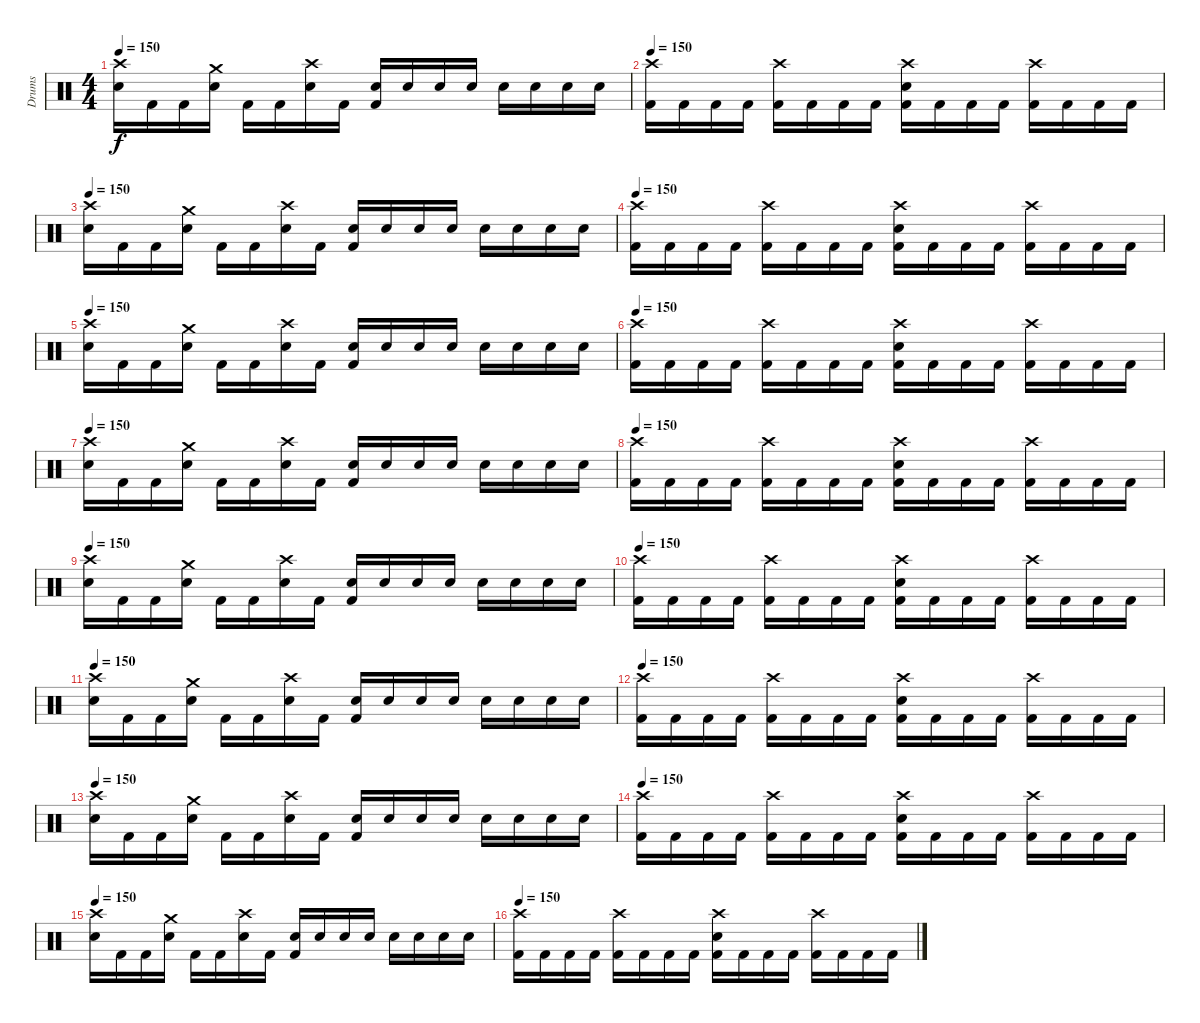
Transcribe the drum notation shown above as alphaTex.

\track ("Drums" "Drums") {instrument percussion}
\staff {score}
\articulation defaults
\ts (4 4)
\tempo 150
\clef neutral
\ks c
("Crash high (hit)" "Electric Snare (hit)").16{dy f} "Kick (hit) 2".16 "Kick (hit) 2".16 ("Crash medium (hit)" "Electric Snare (hit)").16 "Kick (hit) 2".16 "Kick (hit) 2".16 ("Crash high (hit)" "Electric Snare (hit)").16 "Kick (hit) 2".16 ("Electric Snare (hit)" "Kick (hit) 2").16 "Electric Snare (hit)".16 "Electric Snare (hit)".16 "Electric Snare (hit)".16 "Electric Snare (hit)".16 "Electric Snare (hit)".16 "Electric Snare (hit)".16 "Electric Snare (hit)".16 |
\tempo 150
("Crash high (hit)" "Kick (hit) 2").16 "Kick (hit) 2".16 "Kick (hit) 2".16 "Kick (hit) 2".16 ("Crash high (hit)" "Kick (hit) 2").16 "Kick (hit) 2".16 "Kick (hit) 2".16 "Kick (hit) 2".16 ("Crash high (hit)" "Electric Snare (hit)" "Kick (hit) 2").16 "Kick (hit) 2".16 "Kick (hit) 2".16 "Kick (hit) 2".16 ("Crash high (hit)" "Kick (hit) 2").16 "Kick (hit) 2".16 "Kick (hit) 2".16 "Kick (hit) 2".16 |
\tempo 150
("Crash high (hit)" "Electric Snare (hit)").16 "Kick (hit) 2".16 "Kick (hit) 2".16 ("Crash medium (hit)" "Electric Snare (hit)").16 "Kick (hit) 2".16 "Kick (hit) 2".16 ("Crash high (hit)" "Electric Snare (hit)").16 "Kick (hit) 2".16 ("Electric Snare (hit)" "Kick (hit) 2").16 "Electric Snare (hit)".16 "Electric Snare (hit)".16 "Electric Snare (hit)".16 "Electric Snare (hit)".16 "Electric Snare (hit)".16 "Electric Snare (hit)".16 "Electric Snare (hit)".16 |
\tempo 150
("Crash high (hit)" "Kick (hit) 2").16 "Kick (hit) 2".16 "Kick (hit) 2".16 "Kick (hit) 2".16 ("Crash high (hit)" "Kick (hit) 2").16 "Kick (hit) 2".16 "Kick (hit) 2".16 "Kick (hit) 2".16 ("Crash high (hit)" "Electric Snare (hit)" "Kick (hit) 2").16 "Kick (hit) 2".16 "Kick (hit) 2".16 "Kick (hit) 2".16 ("Crash high (hit)" "Kick (hit) 2").16 "Kick (hit) 2".16 "Kick (hit) 2".16 "Kick (hit) 2".16 |
\tempo 150
("Crash high (hit)" "Electric Snare (hit)").16 "Kick (hit) 2".16 "Kick (hit) 2".16 ("Crash medium (hit)" "Electric Snare (hit)").16 "Kick (hit) 2".16 "Kick (hit) 2".16 ("Crash high (hit)" "Electric Snare (hit)").16 "Kick (hit) 2".16 ("Electric Snare (hit)" "Kick (hit) 2").16 "Electric Snare (hit)".16 "Electric Snare (hit)".16 "Electric Snare (hit)".16 "Electric Snare (hit)".16 "Electric Snare (hit)".16 "Electric Snare (hit)".16 "Electric Snare (hit)".16 |
\tempo 150
("Crash high (hit)" "Kick (hit) 2").16 "Kick (hit) 2".16 "Kick (hit) 2".16 "Kick (hit) 2".16 ("Crash high (hit)" "Kick (hit) 2").16 "Kick (hit) 2".16 "Kick (hit) 2".16 "Kick (hit) 2".16 ("Crash high (hit)" "Electric Snare (hit)" "Kick (hit) 2").16 "Kick (hit) 2".16 "Kick (hit) 2".16 "Kick (hit) 2".16 ("Crash high (hit)" "Kick (hit) 2").16 "Kick (hit) 2".16 "Kick (hit) 2".16 "Kick (hit) 2".16 |
\tempo 150
("Crash high (hit)" "Electric Snare (hit)").16 "Kick (hit) 2".16 "Kick (hit) 2".16 ("Crash medium (hit)" "Electric Snare (hit)").16 "Kick (hit) 2".16 "Kick (hit) 2".16 ("Crash high (hit)" "Electric Snare (hit)").16 "Kick (hit) 2".16 ("Electric Snare (hit)" "Kick (hit) 2").16 "Electric Snare (hit)".16 "Electric Snare (hit)".16 "Electric Snare (hit)".16 "Electric Snare (hit)".16 "Electric Snare (hit)".16 "Electric Snare (hit)".16 "Electric Snare (hit)".16 |
\tempo 150
("Crash high (hit)" "Kick (hit) 2").16 "Kick (hit) 2".16 "Kick (hit) 2".16 "Kick (hit) 2".16 ("Crash high (hit)" "Kick (hit) 2").16 "Kick (hit) 2".16 "Kick (hit) 2".16 "Kick (hit) 2".16 ("Crash high (hit)" "Electric Snare (hit)" "Kick (hit) 2").16 "Kick (hit) 2".16 "Kick (hit) 2".16 "Kick (hit) 2".16 ("Crash high (hit)" "Kick (hit) 2").16 "Kick (hit) 2".16 "Kick (hit) 2".16 "Kick (hit) 2".16 |
\tempo 150
("Crash high (hit)" "Electric Snare (hit)").16 "Kick (hit) 2".16 "Kick (hit) 2".16 ("Crash medium (hit)" "Electric Snare (hit)").16 "Kick (hit) 2".16 "Kick (hit) 2".16 ("Crash high (hit)" "Electric Snare (hit)").16 "Kick (hit) 2".16 ("Electric Snare (hit)" "Kick (hit) 2").16 "Electric Snare (hit)".16 "Electric Snare (hit)".16 "Electric Snare (hit)".16 "Electric Snare (hit)".16 "Electric Snare (hit)".16 "Electric Snare (hit)".16 "Electric Snare (hit)".16 |
\tempo 150
("Crash high (hit)" "Kick (hit) 2").16 "Kick (hit) 2".16 "Kick (hit) 2".16 "Kick (hit) 2".16 ("Crash high (hit)" "Kick (hit) 2").16 "Kick (hit) 2".16 "Kick (hit) 2".16 "Kick (hit) 2".16 ("Crash high (hit)" "Electric Snare (hit)" "Kick (hit) 2").16 "Kick (hit) 2".16 "Kick (hit) 2".16 "Kick (hit) 2".16 ("Crash high (hit)" "Kick (hit) 2").16 "Kick (hit) 2".16 "Kick (hit) 2".16 "Kick (hit) 2".16 |
\tempo 150
("Crash high (hit)" "Electric Snare (hit)").16 "Kick (hit) 2".16 "Kick (hit) 2".16 ("Crash medium (hit)" "Electric Snare (hit)").16 "Kick (hit) 2".16 "Kick (hit) 2".16 ("Crash high (hit)" "Electric Snare (hit)").16 "Kick (hit) 2".16 ("Electric Snare (hit)" "Kick (hit) 2").16 "Electric Snare (hit)".16 "Electric Snare (hit)".16 "Electric Snare (hit)".16 "Electric Snare (hit)".16 "Electric Snare (hit)".16 "Electric Snare (hit)".16 "Electric Snare (hit)".16 |
\tempo 150
("Crash high (hit)" "Kick (hit) 2").16 "Kick (hit) 2".16 "Kick (hit) 2".16 "Kick (hit) 2".16 ("Crash high (hit)" "Kick (hit) 2").16 "Kick (hit) 2".16 "Kick (hit) 2".16 "Kick (hit) 2".16 ("Crash high (hit)" "Electric Snare (hit)" "Kick (hit) 2").16 "Kick (hit) 2".16 "Kick (hit) 2".16 "Kick (hit) 2".16 ("Crash high (hit)" "Kick (hit) 2").16 "Kick (hit) 2".16 "Kick (hit) 2".16 "Kick (hit) 2".16 |
\tempo 150
("Crash high (hit)" "Electric Snare (hit)").16 "Kick (hit) 2".16 "Kick (hit) 2".16 ("Crash medium (hit)" "Electric Snare (hit)").16 "Kick (hit) 2".16 "Kick (hit) 2".16 ("Crash high (hit)" "Electric Snare (hit)").16 "Kick (hit) 2".16 ("Electric Snare (hit)" "Kick (hit) 2").16 "Electric Snare (hit)".16 "Electric Snare (hit)".16 "Electric Snare (hit)".16 "Electric Snare (hit)".16 "Electric Snare (hit)".16 "Electric Snare (hit)".16 "Electric Snare (hit)".16 |
\tempo 150
("Crash high (hit)" "Kick (hit) 2").16 "Kick (hit) 2".16 "Kick (hit) 2".16 "Kick (hit) 2".16 ("Crash high (hit)" "Kick (hit) 2").16 "Kick (hit) 2".16 "Kick (hit) 2".16 "Kick (hit) 2".16 ("Crash high (hit)" "Electric Snare (hit)" "Kick (hit) 2").16 "Kick (hit) 2".16 "Kick (hit) 2".16 "Kick (hit) 2".16 ("Crash high (hit)" "Kick (hit) 2").16 "Kick (hit) 2".16 "Kick (hit) 2".16 "Kick (hit) 2".16 |
\tempo 150
("Crash high (hit)" "Electric Snare (hit)").16 "Kick (hit) 2".16 "Kick (hit) 2".16 ("Crash medium (hit)" "Electric Snare (hit)").16 "Kick (hit) 2".16 "Kick (hit) 2".16 ("Crash high (hit)" "Electric Snare (hit)").16 "Kick (hit) 2".16 ("Electric Snare (hit)" "Kick (hit) 2").16 "Electric Snare (hit)".16 "Electric Snare (hit)".16 "Electric Snare (hit)".16 "Electric Snare (hit)".16 "Electric Snare (hit)".16 "Electric Snare (hit)".16 "Electric Snare (hit)".16 |
\tempo 150
("Crash high (hit)" "Kick (hit) 2").16 "Kick (hit) 2".16 "Kick (hit) 2".16 "Kick (hit) 2".16 ("Crash high (hit)" "Kick (hit) 2").16 "Kick (hit) 2".16 "Kick (hit) 2".16 "Kick (hit) 2".16 ("Crash high (hit)" "Electric Snare (hit)" "Kick (hit) 2").16 "Kick (hit) 2".16 "Kick (hit) 2".16 "Kick (hit) 2".16 ("Crash high (hit)" "Kick (hit) 2").16 "Kick (hit) 2".16 "Kick (hit) 2".16 "Kick (hit) 2".16
